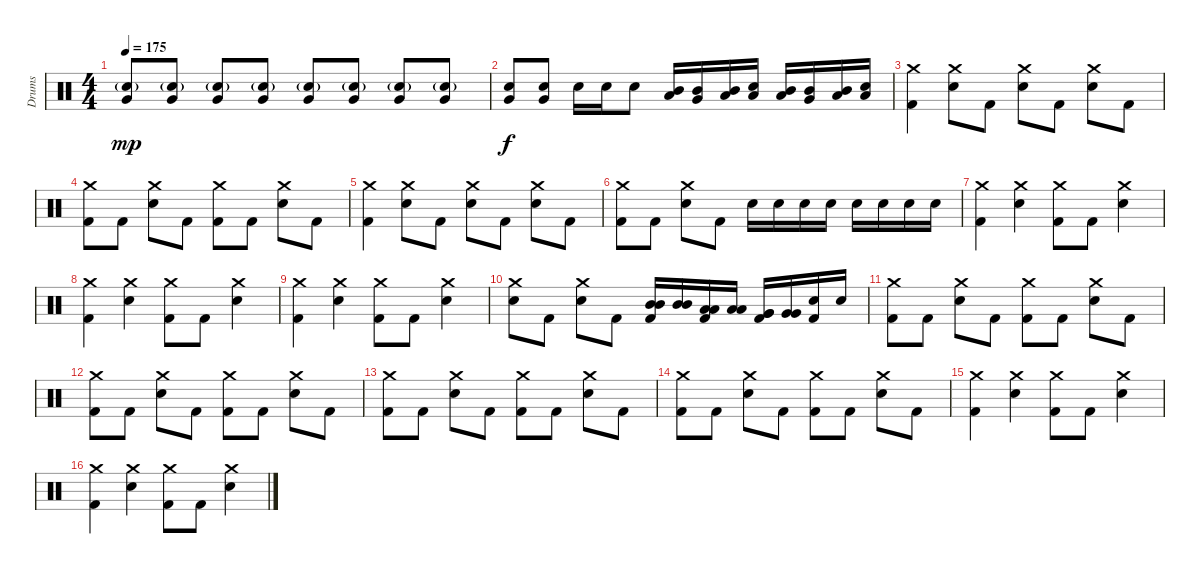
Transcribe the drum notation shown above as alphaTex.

\track ("Drums" "Drums") {instrument percussion}
\staff {score}
\articulation defaults
\ts (4 4)
\tempo 175
\clef neutral
\ks c
("Electric Snare (hit)"{g} "Very Low Tom (hit)").8{dy mp} ("Electric Snare (hit)"{g} "Very Low Tom (hit)").8 ("Electric Snare (hit)"{g} "Very Low Tom (hit)").8 ("Electric Snare (hit)"{g} "Very Low Tom (hit)").8 ("Electric Snare (hit)"{g} "Very Low Tom (hit)").8 ("Electric Snare (hit)"{g} "Very Low Tom (hit)").8 ("Electric Snare (hit)"{g} "Very Low Tom (hit)").8 ("Electric Snare (hit)"{g} "Very Low Tom (hit)").8 |
("Electric Snare (hit)" "Very Low Tom (hit)").8{dy f} ("Electric Snare (hit)" "Very Low Tom (hit)").8 "Electric Snare (hit)".16 "Electric Snare (hit)".16 "Electric Snare (hit)".8 ("Mid Tom (hit)" "Low Tom (hit)").16 ("Mid Tom (hit)" "Very Low Tom (hit)").16 ("Mid Tom (hit)" "Low Tom (hit)").16 ("Low Tom (hit)" "Electric Snare (hit)").16 ("Mid Tom (hit)" "Low Tom (hit)").16 ("Mid Tom (hit)" "Very Low Tom (hit)").16 ("Mid Tom (hit)" "Low Tom (hit)").16 ("Low Tom (hit)" "Electric Snare (hit)").16 |
("Kick (hit) 2" "Crash medium (hit)").4 ("Electric Snare (hit)" "Crash medium (hit)").8 "Kick (hit) 2".8 ("Electric Snare (hit)" "Crash medium (hit)").8 "Kick (hit) 2".8 ("Electric Snare (hit)" "Crash medium (hit)").8 "Kick (hit) 2".8 |
("Kick (hit) 2" "Crash medium (hit)").8 "Kick (hit) 2".8 ("Electric Snare (hit)" "Crash medium (hit)").8 "Kick (hit) 2".8 ("Kick (hit) 2" "Crash medium (hit)").8 "Kick (hit) 2".8 ("Electric Snare (hit)" "Crash medium (hit)").8 "Kick (hit) 2".8 |
("Kick (hit) 2" "Crash medium (hit)").4 ("Electric Snare (hit)" "Crash medium (hit)").8 "Kick (hit) 2".8 ("Electric Snare (hit)" "Crash medium (hit)").8 "Kick (hit) 2".8 ("Electric Snare (hit)" "Crash medium (hit)").8 "Kick (hit) 2".8 |
("Kick (hit) 2" "Crash medium (hit)").8 "Kick (hit) 2".8 ("Electric Snare (hit)" "Crash medium (hit)").8 "Kick (hit) 2".8 "Electric Snare (hit)".16 "Electric Snare (hit)".16 "Electric Snare (hit)".16 "Electric Snare (hit)".16 "Electric Snare (hit)".16 "Electric Snare (hit)".16 "Electric Snare (hit)".16 "Electric Snare (hit)".16 |
("Kick (hit) 2" "Crash medium (hit)").4 ("Electric Snare (hit)" "Crash medium (hit)").4 ("Kick (hit) 2" "Crash medium (hit)").8 "Kick (hit) 2".8 ("Electric Snare (hit)" "Crash medium (hit)").4 |
("Kick (hit) 2" "Crash medium (hit)").4 ("Electric Snare (hit)" "Crash medium (hit)").4 ("Kick (hit) 2" "Crash medium (hit)").8 "Kick (hit) 2".8 ("Electric Snare (hit)" "Crash medium (hit)").4 |
("Kick (hit) 2" "Crash medium (hit)").4 ("Electric Snare (hit)" "Crash medium (hit)").4 ("Kick (hit) 2" "Crash medium (hit)").8 "Kick (hit) 2".8 ("Electric Snare (hit)" "Crash medium (hit)").4 |
("Electric Snare (hit)" "Crash medium (hit)").8 "Kick (hit) 2".8 ("Electric Snare (hit)" "Crash medium (hit)").8 "Kick (hit) 2".8 ("Kick (hit) 2" "Mid Tom (hit)" "Mid Tom (hit)").16 ("Mid Tom (hit)" "Mid Tom (hit)").16 ("Kick (hit) 2" "Low Tom (hit)" "Low Tom (hit)").16 ("Low Tom (hit)" "Low Tom (hit)").16 ("Kick (hit) 2" "Very Low Tom (hit)" "Very Low Tom (hit)").16 ("Very Low Tom (hit)" "Very Low Tom (hit)").16 ("Kick (hit) 2" "Electric Snare (hit)").16 "Electric Snare (hit)".16 |
("Kick (hit) 2" "Crash medium (hit)").8 "Kick (hit) 2".8 ("Electric Snare (hit)" "Crash medium (hit)").8 "Kick (hit) 2".8 ("Kick (hit) 2" "Crash medium (hit)").8 "Kick (hit) 2".8 ("Electric Snare (hit)" "Crash medium (hit)").8 "Kick (hit) 2".8 |
("Kick (hit) 2" "Crash medium (hit)").8 "Kick (hit) 2".8 ("Electric Snare (hit)" "Crash medium (hit)").8 "Kick (hit) 2".8 ("Kick (hit) 2" "Crash medium (hit)").8 "Kick (hit) 2".8 ("Electric Snare (hit)" "Crash medium (hit)").8 "Kick (hit) 2".8 |
("Kick (hit) 2" "Crash medium (hit)").8 "Kick (hit) 2".8 ("Electric Snare (hit)" "Crash medium (hit)").8 "Kick (hit) 2".8 ("Kick (hit) 2" "Crash medium (hit)").8 "Kick (hit) 2".8 ("Electric Snare (hit)" "Crash medium (hit)").8 "Kick (hit) 2".8 |
("Kick (hit) 2" "Crash medium (hit)").8 "Kick (hit) 2".8 ("Electric Snare (hit)" "Crash medium (hit)").8 "Kick (hit) 2".8 ("Kick (hit) 2" "Crash medium (hit)").8 "Kick (hit) 2".8 ("Electric Snare (hit)" "Crash medium (hit)").8 "Kick (hit) 2".8 |
("Kick (hit) 2" "Crash medium (hit)").4 ("Electric Snare (hit)" "Crash medium (hit)").4 ("Kick (hit) 2" "Crash medium (hit)").8 "Kick (hit) 2".8 ("Electric Snare (hit)" "Crash medium (hit)").4 |
("Kick (hit) 2" "Crash medium (hit)").4 ("Electric Snare (hit)" "Crash medium (hit)").4 ("Kick (hit) 2" "Crash medium (hit)").8 "Kick (hit) 2".8 ("Electric Snare (hit)" "Crash medium (hit)").4
